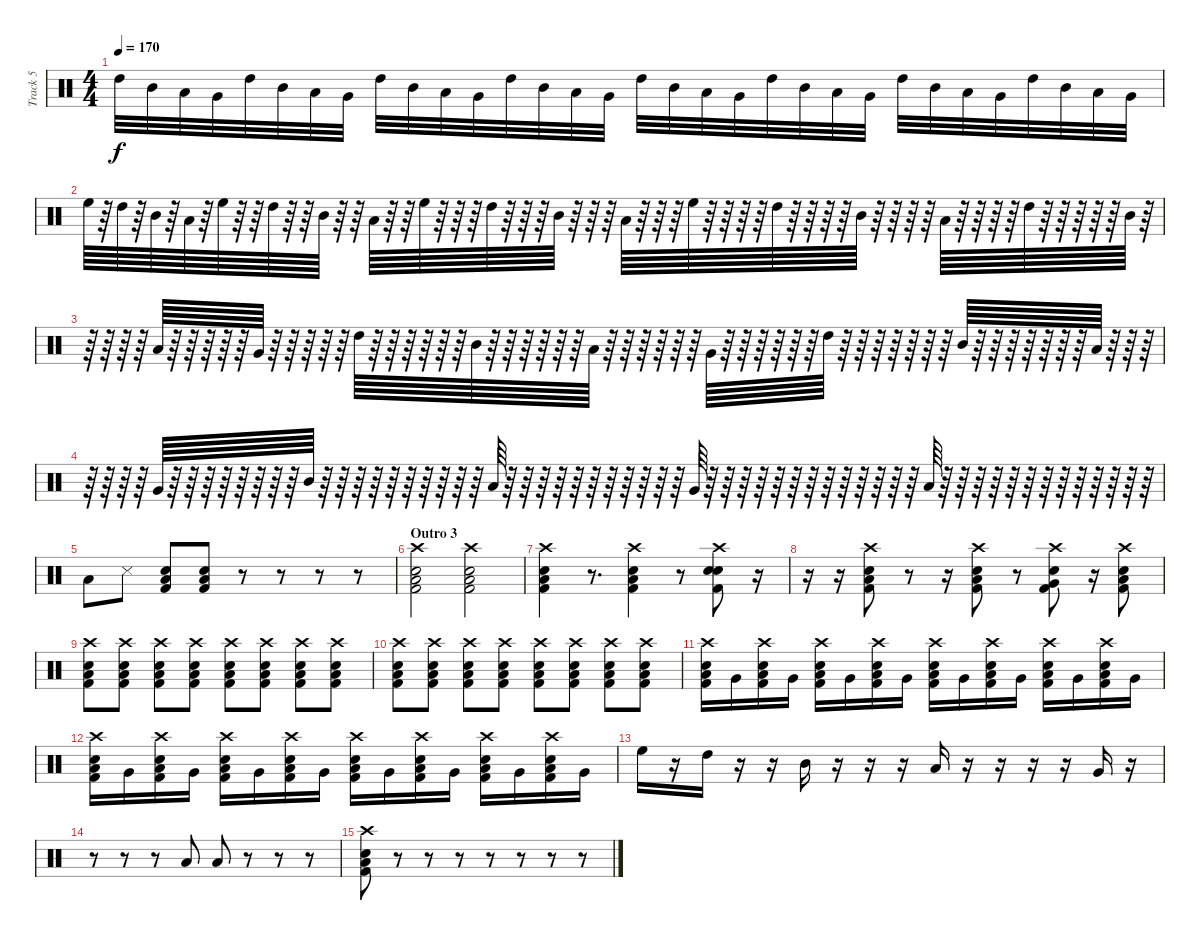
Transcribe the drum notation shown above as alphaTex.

\track ("Track 5" "Track 5") {instrument percussion}
\staff {score}
\articulation defaults
\ts (4 4)
\tempo 170
\clef neutral
\ks c "High Tom (hit)".32{dy f} "Mid Tom (hit)".32 "Low Tom (hit)".32 "Very Low Tom (hit)".32 "High Tom (hit)".32 "Mid Tom (hit)".32 "Low Tom (hit)".32 "Very Low Tom (hit)".32 "High Tom (hit)".32 "Mid Tom (hit)".32 "Low Tom (hit)".32 "Very Low Tom (hit)".32 "High Tom (hit)".32 "Mid Tom (hit)".32 "Low Tom (hit)".32 "Very Low Tom (hit)".32 "High Tom (hit)".32 "Mid Tom (hit)".32 "Low Tom (hit)".32 "Very Low Tom (hit)".32 "High Tom (hit)".32 "Mid Tom (hit)".32 "Low Tom (hit)".32 "Very Low Tom (hit)".32 "High Tom (hit)".32 "Mid Tom (hit)".32 "Low Tom (hit)".32 "Very Low Tom (hit)".32 "High Tom (hit)".32 "Mid Tom (hit)".32 "Low Tom (hit)".32 "Very Low Tom (hit)".32
|
"High Floor Tom (hit)".64 r.64 "High Tom (hit)".64 r.64 "Mid Tom (hit)".64 r.64 "Low Tom (hit)".64 r.64 "High Floor Tom (hit)".64 r.64 r.64 "High Tom (hit)".64 r.64 r.64 "Mid Tom (hit)".64 r.64 r.64 "Low Tom (hit)".64 r.64 r.64 "High Floor Tom (hit)".64 r.64 r.64 r.64 "High Tom (hit)".64 r.64 r.64 r.64 "Mid Tom (hit)".64 r.64 r.64 r.64 "Low Tom (hit)".64 r.64 r.64 r.64 "High Floor Tom (hit)".64 r.64 r.64 r.64 r.64 "High Tom (hit)".64 r.64 r.64 r.64 r.64 "Mid Tom (hit)".64 r.64 r.64 r.64 r.64 "Low Tom (hit)".64 r.64 r.64 r.64 r.64 "High Tom (hit)".64 r.64 r.64 r.64 r.64 r.64 "Mid Tom (hit)".64 r.64 |
r.64 r.64 r.64 r.64 "Low Tom (hit)".64 r.64 r.64 r.64 r.64 r.64 "Very Low Tom (hit)".64 r.64 r.64 r.64 r.64 r.64 "High Tom (hit)".64 r.64 r.64 r.64 r.64 r.64 r.64 "Mid Tom (hit)".64 r.64 r.64 r.64 r.64 r.64 r.64 "Low Tom (hit)".64 r.64 r.64 r.64 r.64 r.64 r.64 "Very Low Tom (hit)".64 r.64 r.64 r.64 r.64 r.64 r.64 "High Tom (hit)".64 r.64 r.64 r.64 r.64 r.64 r.64 r.64 "Mid Tom (hit)".64 r.64 r.64 r.64 r.64 r.64 r.64 r.64 "Low Tom (hit)".64 r.64 r.64 r.64 |
r.64 r.64 r.64 r.64 "Very Low Tom (hit)".64 r.64 r.64 r.64 r.64 r.64 r.64 r.64 r.64 "Mid Tom (hit)".64 r.64 r.64 r.64 r.64 r.64 r.64 r.64 r.64 r.64 r.64 "Low Tom (hit)".64 r.64 r.64 r.64 r.64 r.64 r.64 r.64 r.64 r.64 r.64 r.64 "Very Low Tom (hit)".64 r.64 r.64 r.64 r.64 r.64 r.64 r.64 r.64 r.64 r.64 r.64 r.64 r.64 "Low Floor Tom (hit)".64 r.64 r.64 r.64 r.64 r.64 r.64 r.64 r.64 r.64 r.64 r.64 r.64 r.64 |
"Low Tom (hit)".8 "Snare (side stick) 3".8 ("Snare (hit) 2" "Kick (hit) 2" "Low Tom (hit)").8 ("Snare (hit) 2" "Kick (hit) 2" "Low Tom (hit)").8 r.8 r.8 r.8 r.8 |
\section ("" "Outro 3")
("Kick (hit) 2" "Snare (hit) 2" "Low Tom (hit)" "Crash high (hit)").2 ("Kick (hit) 2" "Snare (hit) 2" "Low Tom (hit)" "Crash high (hit)").2 |
("Kick (hit) 2" "Snare (hit) 2" "Low Tom (hit)" "Crash high (hit)").4 r.8{d} ("Kick (hit) 2" "Snare (hit) 2" "Low Tom (hit)" "Crash high (hit)").4 r.8 ("Kick (hit) 2" "Snare (hit) 2" "Electric Snare (hit)" "Crash high (hit)").8 r.16 |
r.16 r.16 ("Kick (hit) 2" "Snare (hit) 2" "Low Tom (hit)" "Crash high (hit)").8 r.8 r.16 ("Kick (hit) 2" "Snare (hit) 2" "Low Tom (hit)" "Crash high (hit)").8 r.8 ("Kick (hit) 2" "Snare (hit) 2" "Very Low Tom (hit)" "Crash high (hit)").8 r.16 ("Kick (hit) 2" "Snare (hit) 2" "Low Tom (hit)" "Crash high (hit)").8 |
("Kick (hit) 2" "Snare (hit) 2" "Low Tom (hit)" "Crash high (hit)").8 ("Kick (hit) 2" "Snare (hit) 2" "Low Tom (hit)" "Crash high (hit)").8 ("Kick (hit) 2" "Snare (hit) 2" "Low Tom (hit)" "Crash high (hit)").8 ("Kick (hit) 2" "Snare (hit) 2" "Low Tom (hit)" "Crash high (hit)").8 ("Kick (hit) 2" "Snare (hit) 2" "Low Tom (hit)" "Crash high (hit)").8 ("Kick (hit) 2" "Snare (hit) 2" "Low Tom (hit)" "Crash high (hit)").8 ("Kick (hit) 2" "Snare (hit) 2" "Low Tom (hit)" "Crash high (hit)").8 ("Kick (hit) 2" "Snare (hit) 2" "Low Tom (hit)" "Crash high (hit)").8 |
("Kick (hit) 2" "Snare (hit) 2" "Low Tom (hit)" "Crash high (hit)").8 ("Kick (hit) 2" "Snare (hit) 2" "Low Tom (hit)" "Crash high (hit)").8 ("Kick (hit) 2" "Snare (hit) 2" "Low Tom (hit)" "Crash high (hit)").8 ("Kick (hit) 2" "Snare (hit) 2" "Low Tom (hit)" "Crash high (hit)").8 ("Kick (hit) 2" "Snare (hit) 2" "Low Tom (hit)" "Crash high (hit)").8 ("Kick (hit) 2" "Snare (hit) 2" "Low Tom (hit)" "Crash high (hit)").8 ("Kick (hit) 2" "Snare (hit) 2" "Low Tom (hit)" "Crash high (hit)").8 ("Kick (hit) 2" "Snare (hit) 2" "Low Tom (hit)" "Crash high (hit)").8 |
("Kick (hit) 2" "Snare (hit) 2" "Low Tom (hit)" "Crash high (hit)").16 "Very Low Tom (hit)".16 ("Kick (hit) 2" "Snare (hit) 2" "Low Tom (hit)" "Crash high (hit)").16 "Very Low Tom (hit)".16 ("Kick (hit) 2" "Snare (hit) 2" "Low Tom (hit)" "Crash high (hit)").16 "Very Low Tom (hit)".16 ("Kick (hit) 2" "Snare (hit) 2" "Low Tom (hit)" "Crash high (hit)").16 "Very Low Tom (hit)".16 ("Kick (hit) 2" "Snare (hit) 2" "Low Tom (hit)" "Crash high (hit)").16 "Very Low Tom (hit)".16 ("Kick (hit) 2" "Snare (hit) 2" "Low Tom (hit)" "Crash high (hit)").16 "Very Low Tom (hit)".16 ("Kick (hit) 2" "Snare (hit) 2" "Low Tom (hit)" "Crash high (hit)").16 "Very Low Tom (hit)".16 ("Kick (hit) 2" "Snare (hit) 2" "Low Tom (hit)" "Crash high (hit)").16 "Very Low Tom (hit)".16 |
("Kick (hit) 2" "Snare (hit) 2" "Low Tom (hit)" "Crash high (hit)").16 "Very Low Tom (hit)".16 ("Kick (hit) 2" "Snare (hit) 2" "Low Tom (hit)" "Crash high (hit)").16 "Very Low Tom (hit)".16 ("Kick (hit) 2" "Snare (hit) 2" "Low Tom (hit)" "Crash high (hit)").16 "Very Low Tom (hit)".16 ("Kick (hit) 2" "Snare (hit) 2" "Low Tom (hit)" "Crash high (hit)").16 "Very Low Tom (hit)".16 ("Kick (hit) 2" "Snare (hit) 2" "Low Tom (hit)" "Crash high (hit)").16 "Very Low Tom (hit)".16 ("Kick (hit) 2" "Snare (hit) 2" "Low Tom (hit)" "Crash high (hit)").16 "Very Low Tom (hit)".16 ("Kick (hit) 2" "Snare (hit) 2" "Low Tom (hit)" "Crash high (hit)").16 "Very Low Tom (hit)".16 ("Kick (hit) 2" "Snare (hit) 2" "Low Tom (hit)" "Crash high (hit)").16 "Very Low Tom (hit)".16 |
"High Floor Tom (hit)".16 r.16 "High Tom (hit)".16 r.16 r.16 "Mid Tom (hit)".16 r.16 r.16 r.16 "Low Tom (hit)".16 r.16 r.16 r.16 r.16 "Very Low Tom (hit)".16 r.16 |
r.8 r.8 r.8 "Low Floor Tom (hit)".8 "Low Floor Tom (hit)".8 r.8 r.8 r.8 |
("Kick (hit) 2" "Snare (hit) 2" "Low Tom (hit)" "Crash high (hit)").8 r.8 r.8 r.8 r.8 r.8 r.8 r.8
